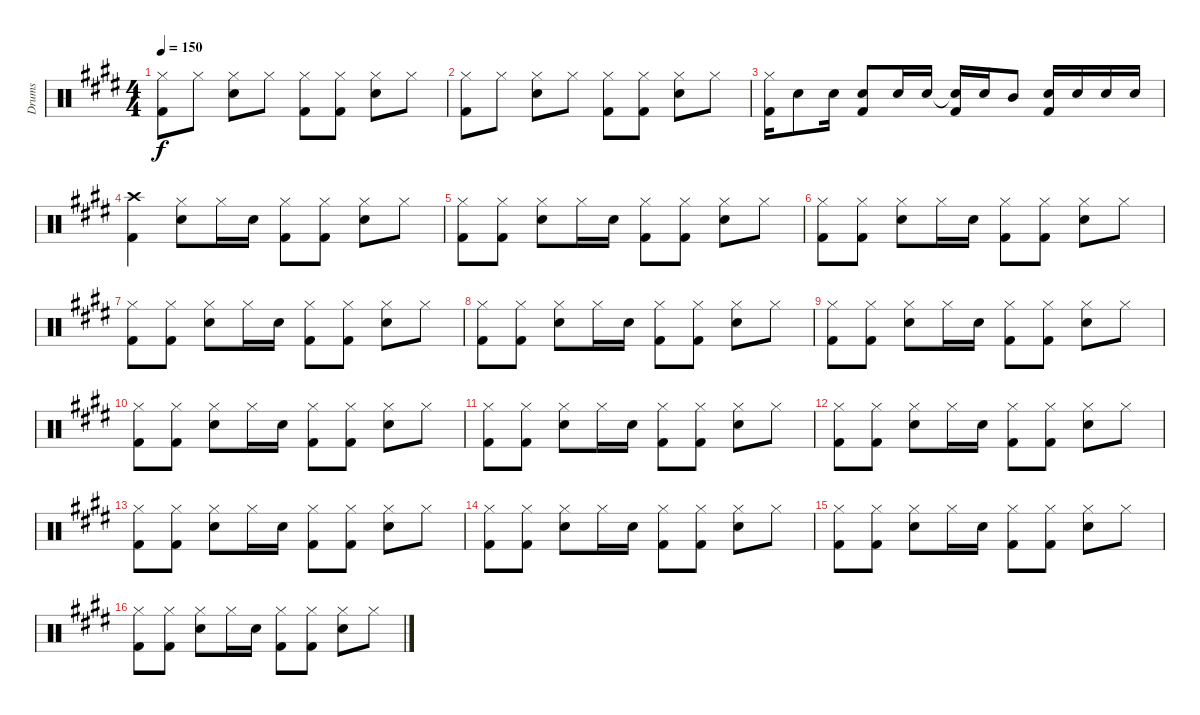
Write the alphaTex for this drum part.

\track ("Drums" "Drums") {instrument percussion}
\staff {score}
\articulation defaults
\ts (4 4)
\tempo 150
\clef neutral
\ks e
("Hi-Hat (closed)" "Kick (hit) 2").8{dy f} "Hi-Hat (closed)".8 ("Hi-Hat (closed)" "Snare (hit) 2").8 "Hi-Hat (closed)".8 ("Hi-Hat (closed)" "Kick (hit) 2").8 ("Hi-Hat (closed)" "Kick (hit) 2").8 ("Hi-Hat (closed)" "Snare (hit) 2").8 "Hi-Hat (closed)".8 |
("Hi-Hat (closed)" "Kick (hit) 2").8 "Hi-Hat (closed)".8 ("Hi-Hat (closed)" "Snare (hit) 2").8 "Hi-Hat (closed)".8 ("Hi-Hat (closed)" "Kick (hit) 2").8 ("Hi-Hat (closed)" "Kick (hit) 2").8 ("Hi-Hat (closed)" "Snare (hit) 2").8 "Hi-Hat (closed)".8 |
("Hi-Hat (closed)" "Kick (hit) 2").16 "Snare (hit) 2".8 "Snare (hit) 2".16 ("Snare (hit) 2" "Kick (hit) 2").8 "Snare (hit) 2".16 "Snare (hit) 2".16 ("Snare (hit)"{t} "Kick (hit) 2").16 "Snare (hit) 2".16 "Mid Tom (hit)".8 ("Snare (hit) 2" "Kick (hit) 2").16 "Snare (hit) 2".16 "Snare (hit) 2".16 "Snare (hit) 2".16 |
("Crash high (hit)" "Kick (hit) 2").4 ("Hi-Hat (closed)" "Snare (hit) 2").8 "Hi-Hat (closed)".16 "Snare (hit) 2".16 ("Hi-Hat (closed)" "Kick (hit) 2").8 ("Hi-Hat (closed)" "Kick (hit) 2").8 ("Hi-Hat (closed)" "Snare (hit) 2").8 "Hi-Hat (closed)".8 |
("Hi-Hat (closed)" "Kick (hit) 2").8 ("Hi-Hat (closed)" "Kick (hit) 2").8 ("Hi-Hat (closed)" "Snare (hit) 2").8 "Hi-Hat (closed)".16 "Snare (hit) 2".16 ("Hi-Hat (closed)" "Kick (hit) 2").8 ("Hi-Hat (closed)" "Kick (hit) 2").8 ("Hi-Hat (closed)" "Snare (hit) 2").8 "Hi-Hat (closed)".8 |
("Hi-Hat (closed)" "Kick (hit) 2").8 ("Hi-Hat (closed)" "Kick (hit) 2").8 ("Hi-Hat (closed)" "Snare (hit) 2").8 "Hi-Hat (closed)".16 "Snare (hit) 2".16 ("Hi-Hat (closed)" "Kick (hit) 2").8 ("Hi-Hat (closed)" "Kick (hit) 2").8 ("Hi-Hat (closed)" "Snare (hit) 2").8 "Hi-Hat (closed)".8 |
("Hi-Hat (closed)" "Kick (hit) 2").8 ("Hi-Hat (closed)" "Kick (hit) 2").8 ("Hi-Hat (closed)" "Snare (hit) 2").8 "Hi-Hat (closed)".16 "Snare (hit) 2".16 ("Hi-Hat (closed)" "Kick (hit) 2").8 ("Hi-Hat (closed)" "Kick (hit) 2").8 ("Hi-Hat (closed)" "Snare (hit) 2").8 "Hi-Hat (closed)".8 |
("Hi-Hat (closed)" "Kick (hit) 2").8 ("Hi-Hat (closed)" "Kick (hit) 2").8 ("Hi-Hat (closed)" "Snare (hit) 2").8 "Hi-Hat (closed)".16 "Snare (hit) 2".16 ("Hi-Hat (closed)" "Kick (hit) 2").8 ("Hi-Hat (closed)" "Kick (hit) 2").8 ("Hi-Hat (closed)" "Snare (hit) 2").8 "Hi-Hat (closed)".8 |
("Hi-Hat (closed)" "Kick (hit) 2").8 ("Hi-Hat (closed)" "Kick (hit) 2").8 ("Hi-Hat (closed)" "Snare (hit) 2").8 "Hi-Hat (closed)".16 "Snare (hit) 2".16 ("Hi-Hat (closed)" "Kick (hit) 2").8 ("Hi-Hat (closed)" "Kick (hit) 2").8 ("Hi-Hat (closed)" "Snare (hit) 2").8 "Hi-Hat (closed)".8 |
("Hi-Hat (closed)" "Kick (hit) 2").8 ("Hi-Hat (closed)" "Kick (hit) 2").8 ("Hi-Hat (closed)" "Snare (hit) 2").8 "Hi-Hat (closed)".16 "Snare (hit) 2".16 ("Hi-Hat (closed)" "Kick (hit) 2").8 ("Hi-Hat (closed)" "Kick (hit) 2").8 ("Hi-Hat (closed)" "Snare (hit) 2").8 "Hi-Hat (closed)".8 |
("Hi-Hat (closed)" "Kick (hit) 2").8 ("Hi-Hat (closed)" "Kick (hit) 2").8 ("Hi-Hat (closed)" "Snare (hit) 2").8 "Hi-Hat (closed)".16 "Snare (hit) 2".16 ("Hi-Hat (closed)" "Kick (hit) 2").8 ("Hi-Hat (closed)" "Kick (hit) 2").8 ("Hi-Hat (closed)" "Snare (hit) 2").8 "Hi-Hat (closed)".8 |
("Hi-Hat (closed)" "Kick (hit) 2").8 ("Hi-Hat (closed)" "Kick (hit) 2").8 ("Hi-Hat (closed)" "Snare (hit) 2").8 "Hi-Hat (closed)".16 "Snare (hit) 2".16 ("Hi-Hat (closed)" "Kick (hit) 2").8 ("Hi-Hat (closed)" "Kick (hit) 2").8 ("Hi-Hat (closed)" "Snare (hit) 2").8 "Hi-Hat (closed)".8 |
("Hi-Hat (closed)" "Kick (hit) 2").8 ("Hi-Hat (closed)" "Kick (hit) 2").8 ("Hi-Hat (closed)" "Snare (hit) 2").8 "Hi-Hat (closed)".16 "Snare (hit) 2".16 ("Hi-Hat (closed)" "Kick (hit) 2").8 ("Hi-Hat (closed)" "Kick (hit) 2").8 ("Hi-Hat (closed)" "Snare (hit) 2").8 "Hi-Hat (closed)".8 |
("Hi-Hat (closed)" "Kick (hit) 2").8 ("Hi-Hat (closed)" "Kick (hit) 2").8 ("Hi-Hat (closed)" "Snare (hit) 2").8 "Hi-Hat (closed)".16 "Snare (hit) 2".16 ("Hi-Hat (closed)" "Kick (hit) 2").8 ("Hi-Hat (closed)" "Kick (hit) 2").8 ("Hi-Hat (closed)" "Snare (hit) 2").8 "Hi-Hat (closed)".8 |
("Hi-Hat (closed)" "Kick (hit) 2").8 ("Hi-Hat (closed)" "Kick (hit) 2").8 ("Hi-Hat (closed)" "Snare (hit) 2").8 "Hi-Hat (closed)".16 "Snare (hit) 2".16 ("Hi-Hat (closed)" "Kick (hit) 2").8 ("Hi-Hat (closed)" "Kick (hit) 2").8 ("Hi-Hat (closed)" "Snare (hit) 2").8 "Hi-Hat (closed)".8 |
("Hi-Hat (closed)" "Kick (hit) 2").8 ("Hi-Hat (closed)" "Kick (hit) 2").8 ("Hi-Hat (closed)" "Snare (hit) 2").8 "Hi-Hat (closed)".16 "Snare (hit) 2".16 ("Hi-Hat (closed)" "Kick (hit) 2").8 ("Hi-Hat (closed)" "Kick (hit) 2").8 ("Hi-Hat (closed)" "Snare (hit) 2").8 "Hi-Hat (closed)".8
